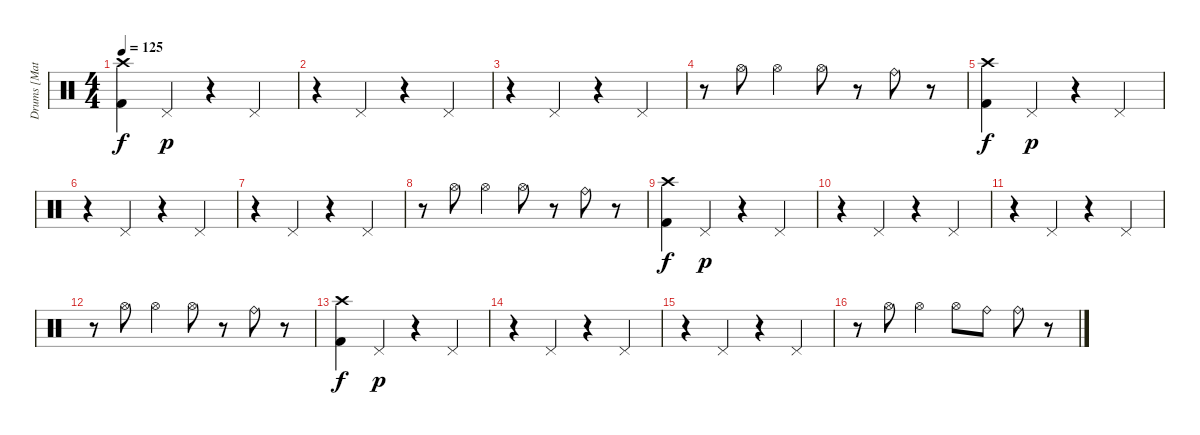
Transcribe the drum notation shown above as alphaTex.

\track ("Drums [Matt]" "Drums [Mat") {instrument percussion}
\staff {score}
\articulation defaults
\ts (4 4)
\tempo 125
\clef neutral
\ks c
("Crash high (hit)" "Kick (hit) 2").4{dy f} "Pedal Hi-Hat (hit)".4{dy p} r.4 "Pedal Hi-Hat (hit)".4 |
r.4 "Pedal Hi-Hat (hit)".4 r.4 "Pedal Hi-Hat (hit)".4 |
r.4 "Pedal Hi-Hat (hit)".4 r.4 "Pedal Hi-Hat (hit)".4 |
r.8 "Hi-Hat (open)".8 "Hi-Hat (open)".4 "Hi-Hat (open)".8 r.8 "Ride (bell)".8 r.8 |
("Crash high (hit)" "Kick (hit) 2").4{dy f} "Pedal Hi-Hat (hit)".4{dy p} r.4 "Pedal Hi-Hat (hit)".4 |
r.4 "Pedal Hi-Hat (hit)".4 r.4 "Pedal Hi-Hat (hit)".4 |
r.4 "Pedal Hi-Hat (hit)".4 r.4 "Pedal Hi-Hat (hit)".4 |
r.8 "Hi-Hat (open)".8 "Hi-Hat (open)".4 "Hi-Hat (open)".8 r.8 "Ride (bell)".8 r.8 |
("Crash high (hit)" "Kick (hit) 2").4{dy f} "Pedal Hi-Hat (hit)".4{dy p} r.4 "Pedal Hi-Hat (hit)".4 |
r.4 "Pedal Hi-Hat (hit)".4 r.4 "Pedal Hi-Hat (hit)".4 |
r.4 "Pedal Hi-Hat (hit)".4 r.4 "Pedal Hi-Hat (hit)".4 |
r.8 "Hi-Hat (open)".8 "Hi-Hat (open)".4 "Hi-Hat (open)".8 r.8 "Ride (bell)".8 r.8 |
("Crash high (hit)" "Kick (hit) 2").4{dy f} "Pedal Hi-Hat (hit)".4{dy p} r.4 "Pedal Hi-Hat (hit)".4 |
r.4 "Pedal Hi-Hat (hit)".4 r.4 "Pedal Hi-Hat (hit)".4 |
r.4 "Pedal Hi-Hat (hit)".4 r.4 "Pedal Hi-Hat (hit)".4 |
r.8 "Hi-Hat (open)".8 "Hi-Hat (open)".4 "Hi-Hat (open)".8 "Ride (bell)".8 "Ride (bell)".8 r.8
